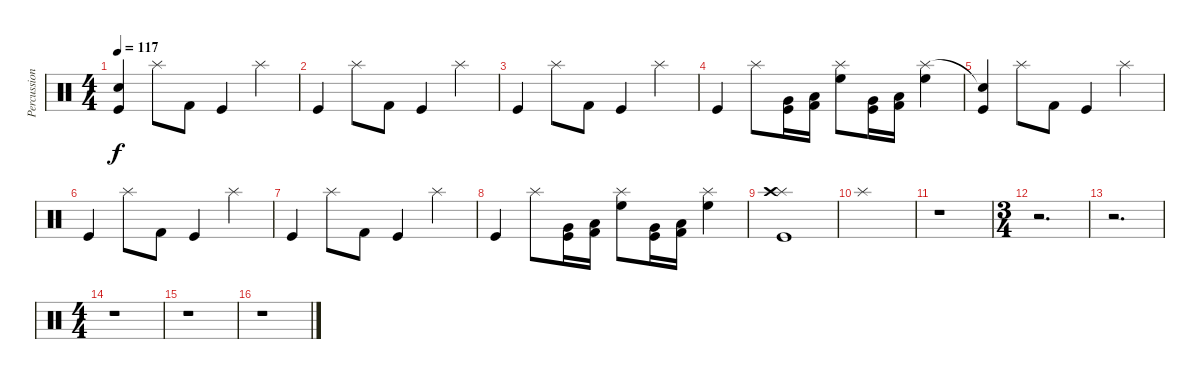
\track ("Percussions" "Percussion") {instrument percussion}
\staff {score}
\articulation defaults
\ts (4 4)
\tempo 117
\clef neutral
\ks c
("Snare (hit)"{t} "Kick (hit)").4{dy f} "Splash (hit)".8 "Kick (hit) 2".8 "Kick (hit)".4 "Splash (hit)".4 |
"Kick (hit)".4 "Splash (hit)".8 "Kick (hit) 2".8 "Kick (hit)".4 "Splash (hit)".4 |
"Kick (hit)".4 "Splash (hit)".8 "Kick (hit) 2".8 "Kick (hit)".4 "Splash (hit)".4 |
"Kick (hit)".4 "Splash (hit)".8 ("Very Low Tom (hit)" "Kick (hit)").16 ("Low Tom (hit)" "Kick (hit) 2").16 ("Splash (hit)" "High Floor Tom (hit)").8 ("Very Low Tom (hit)" "Kick (hit)").16 ("Low Tom (hit)" "Kick (hit) 2").16 ("Splash (hit)" "High Floor Tom (hit)").4 |
("Snare (hit)"{t} "Kick (hit)").4 "Splash (hit)".8 "Kick (hit) 2".8 "Kick (hit)".4 "Splash (hit)".4 |
"Kick (hit)".4 "Splash (hit)".8 "Kick (hit) 2".8 "Kick (hit)".4 "Splash (hit)".4 |
"Kick (hit)".4 "Splash (hit)".8 "Kick (hit) 2".8 "Kick (hit)".4 "Splash (hit)".4 |
"Kick (hit)".4 "Splash (hit)".8 ("Very Low Tom (hit)" "Kick (hit)").16 ("Low Tom (hit)" "Kick (hit) 2").16 ("Splash (hit)" "High Floor Tom (hit)").8 ("Very Low Tom (hit)" "Kick (hit)").16 ("Low Tom (hit)" "Kick (hit) 2").16 ("Splash (hit)" "High Floor Tom (hit)").4 |
("Splash (hit)" "Crash high (hit)" "Kick (hit)").1 |
"Splash (hit)".1 |
r.1 |
\ts (3 4)
r.2{d} |
r.2{d} |
\ts (4 4)
r.1 |
r.1 |
r.1
